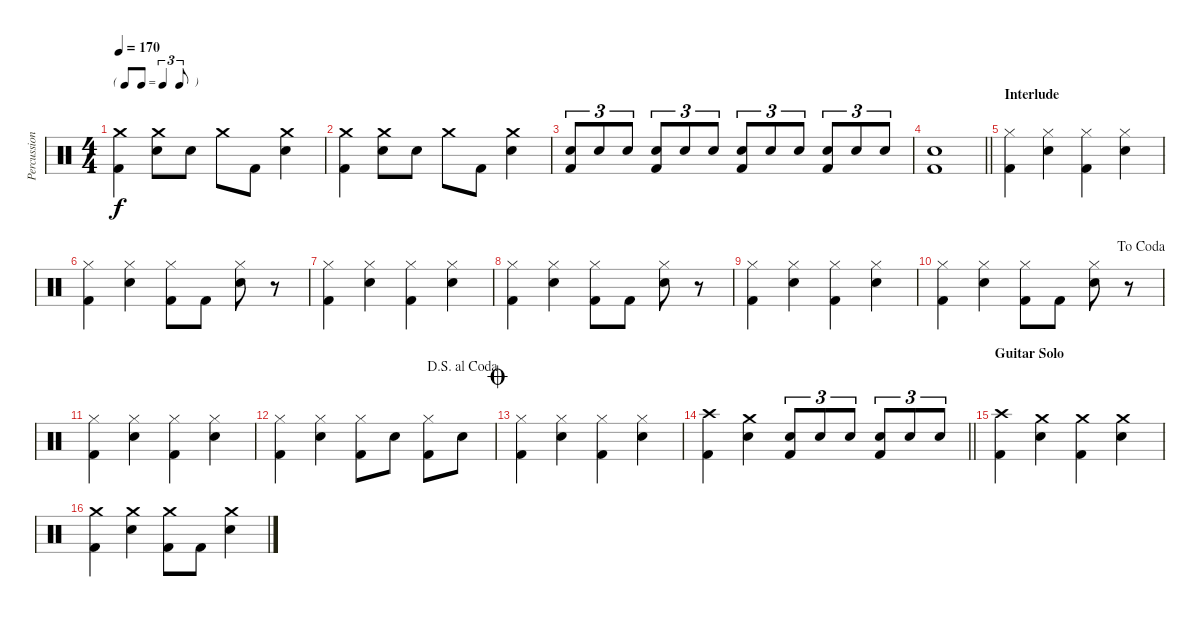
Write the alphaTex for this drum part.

\track ("Percussion" "Percussion") {instrument percussion}
\staff {score}
\articulation defaults
\ts (4 4)
\tf triplet8th
\tempo 170
\clef neutral
\ks c
("Crash medium (hit)" "Kick (hit) 2").4{dy f} ("Crash medium (hit)" "Electric Snare (hit)").8 "Electric Snare (hit)".8 "Crash medium (hit)".8 "Kick (hit) 2".8 ("Crash medium (hit)" "Electric Snare (hit)").4 |
("Crash medium (hit)" "Kick (hit) 2").4 ("Crash medium (hit)" "Electric Snare (hit)").8 "Electric Snare (hit)".8 "Crash medium (hit)".8 "Kick (hit) 2".8 ("Crash medium (hit)" "Electric Snare (hit)").4 |
("Electric Snare (hit)" "Kick (hit) 2").8{tu (3 2)} "Electric Snare (hit)".8{tu (3 2)} "Electric Snare (hit)".8{tu (3 2)} ("Electric Snare (hit)" "Kick (hit) 2").8{tu (3 2)} "Electric Snare (hit)".8{tu (3 2)} "Electric Snare (hit)".8{tu (3 2)} ("Electric Snare (hit)" "Kick (hit) 2").8{tu (3 2)} "Electric Snare (hit)".8{tu (3 2)} "Electric Snare (hit)".8{tu (3 2)} ("Electric Snare (hit)" "Kick (hit) 2").8{tu (3 2)} "Electric Snare (hit)".8{tu (3 2)} "Electric Snare (hit)".8{tu (3 2)} |
\barLineRight lightlight
("Electric Snare (hit)" "Kick (hit) 2").1 |
\section ("" "Interlude")
("Hi-Hat (closed)" "Kick (hit) 2").4 ("Hi-Hat (closed)" "Electric Snare (hit)").4 ("Hi-Hat (closed)" "Kick (hit) 2").4 ("Hi-Hat (closed)" "Electric Snare (hit)").4 |
("Hi-Hat (closed)" "Kick (hit) 2").4 ("Hi-Hat (closed)" "Electric Snare (hit)").4 ("Hi-Hat (closed)" "Kick (hit) 2").8 "Kick (hit) 2".8 ("Hi-Hat (closed)" "Electric Snare (hit)").8 r.8 |
("Hi-Hat (closed)" "Kick (hit) 2").4 ("Hi-Hat (closed)" "Electric Snare (hit)").4 ("Hi-Hat (closed)" "Kick (hit) 2").4 ("Hi-Hat (closed)" "Electric Snare (hit)").4 |
("Hi-Hat (closed)" "Kick (hit) 2").4 ("Hi-Hat (closed)" "Electric Snare (hit)").4 ("Hi-Hat (closed)" "Kick (hit) 2").8 "Kick (hit) 2".8 ("Hi-Hat (closed)" "Electric Snare (hit)").8 r.8 |
("Hi-Hat (closed)" "Kick (hit) 2").4 ("Hi-Hat (closed)" "Electric Snare (hit)").4 ("Hi-Hat (closed)" "Kick (hit) 2").4 ("Hi-Hat (closed)" "Electric Snare (hit)").4 |
\jump dacoda
("Hi-Hat (closed)" "Kick (hit) 2").4 ("Hi-Hat (closed)" "Electric Snare (hit)").4 ("Hi-Hat (closed)" "Kick (hit) 2").8 "Kick (hit) 2".8 ("Hi-Hat (closed)" "Electric Snare (hit)").8 r.8 |
("Hi-Hat (closed)" "Kick (hit) 2").4 ("Hi-Hat (closed)" "Electric Snare (hit)").4 ("Hi-Hat (closed)" "Kick (hit) 2").4 ("Hi-Hat (closed)" "Electric Snare (hit)").4 |
\jump dalsegnoalcoda
("Hi-Hat (closed)" "Kick (hit) 2").4 ("Hi-Hat (closed)" "Electric Snare (hit)").4 ("Hi-Hat (closed)" "Kick (hit) 2").8 "Electric Snare (hit)".8 ("Hi-Hat (closed)" "Kick (hit) 2").8 "Electric Snare (hit)".8 |
\jump coda
("Hi-Hat (closed)" "Kick (hit) 2").4 ("Hi-Hat (closed)" "Electric Snare (hit)").4 ("Hi-Hat (closed)" "Kick (hit) 2").4 ("Hi-Hat (closed)" "Electric Snare (hit)").4 |
\barLineRight lightlight
("Crash high (hit)" "Kick (hit) 2").4 ("Crash medium (hit)" "Electric Snare (hit)").4 ("Electric Snare (hit)" "Kick (hit) 2").8{tu (3 2)} "Electric Snare (hit)".8{tu (3 2)} "Electric Snare (hit)".8{tu (3 2)} ("Electric Snare (hit)" "Kick (hit) 2").8{tu (3 2)} "Electric Snare (hit)".8{tu (3 2)} "Electric Snare (hit)".8{tu (3 2)} |
\section ("" "Guitar Solo")
("Crash high (hit)" "Kick (hit) 2").4 ("Crash medium (hit)" "Electric Snare (hit)").4 ("Crash medium (hit)" "Kick (hit) 2").4 ("Crash medium (hit)" "Electric Snare (hit)").4 |
("Crash medium (hit)" "Kick (hit) 2").4 ("Crash medium (hit)" "Electric Snare (hit)").4 ("Crash medium (hit)" "Kick (hit) 2").8 "Kick (hit) 2".8 ("Crash medium (hit)" "Electric Snare (hit)").4
